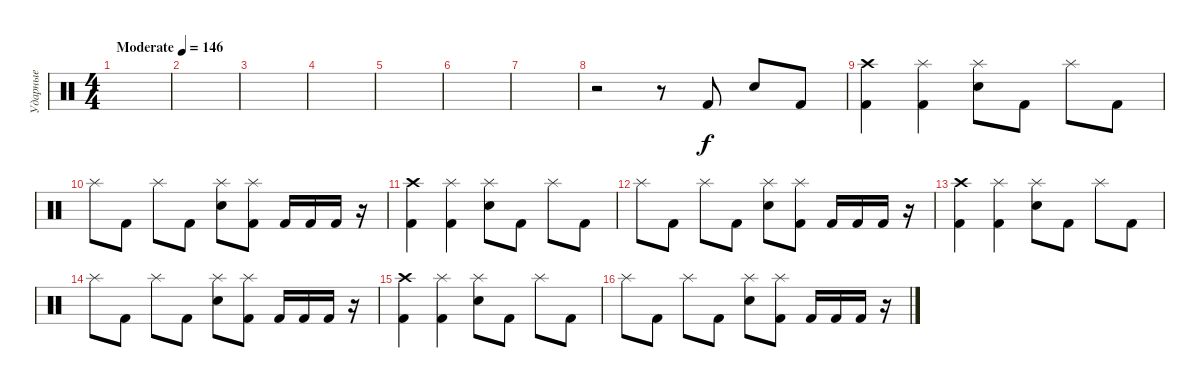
\track ("Ударные" "Ударные") {instrument percussion}
\staff {score}
\articulation defaults
\ts (4 4)
\tempo (146 "Moderate")
\clef neutral
\ks c
|
|
|
|
|
|
|
r.2 r.8 "Kick (hit) 2".8 "Snare (hit) 2".8 "Kick (hit) 2".8 |
("Crash high (hit)" "Kick (hit) 2").4 ("Splash (hit)" "Kick (hit) 2").4 ("Splash (hit)" "Snare (hit) 2").8 "Kick (hit) 2".8 "Splash (hit)".8 "Kick (hit) 2".8 |
"Splash (hit)".8 "Kick (hit) 2".8 "Splash (hit)".8 "Kick (hit) 2".8 ("Splash (hit)" "Snare (hit) 2").8 ("Splash (hit)" "Kick (hit) 2").8 "Kick (hit) 2".16 "Kick (hit) 2".16 "Kick (hit) 2".16 r.16 |
("Crash high (hit)" "Kick (hit) 2").4 ("Splash (hit)" "Kick (hit) 2").4 ("Splash (hit)" "Snare (hit) 2").8 "Kick (hit) 2".8 "Splash (hit)".8 "Kick (hit) 2".8 |
"Splash (hit)".8 "Kick (hit) 2".8 "Splash (hit)".8 "Kick (hit) 2".8 ("Splash (hit)" "Snare (hit) 2").8 ("Splash (hit)" "Kick (hit) 2").8 "Kick (hit) 2".16 "Kick (hit) 2".16 "Kick (hit) 2".16 r.16 |
("Crash high (hit)" "Kick (hit) 2").4 ("Splash (hit)" "Kick (hit) 2").4 ("Splash (hit)" "Snare (hit) 2").8 "Kick (hit) 2".8 "Splash (hit)".8 "Kick (hit) 2".8 |
"Splash (hit)".8 "Kick (hit) 2".8 "Splash (hit)".8 "Kick (hit) 2".8 ("Splash (hit)" "Snare (hit) 2").8 ("Splash (hit)" "Kick (hit) 2").8 "Kick (hit) 2".16 "Kick (hit) 2".16 "Kick (hit) 2".16 r.16 |
("Crash high (hit)" "Kick (hit) 2").4 ("Splash (hit)" "Kick (hit) 2").4 ("Splash (hit)" "Snare (hit) 2").8 "Kick (hit) 2".8 "Splash (hit)".8 "Kick (hit) 2".8 |
"Splash (hit)".8 "Kick (hit) 2".8 "Splash (hit)".8 "Kick (hit) 2".8 ("Splash (hit)" "Snare (hit) 2").8 ("Splash (hit)" "Kick (hit) 2").8 "Kick (hit) 2".16 "Kick (hit) 2".16 "Kick (hit) 2".16 r.16
